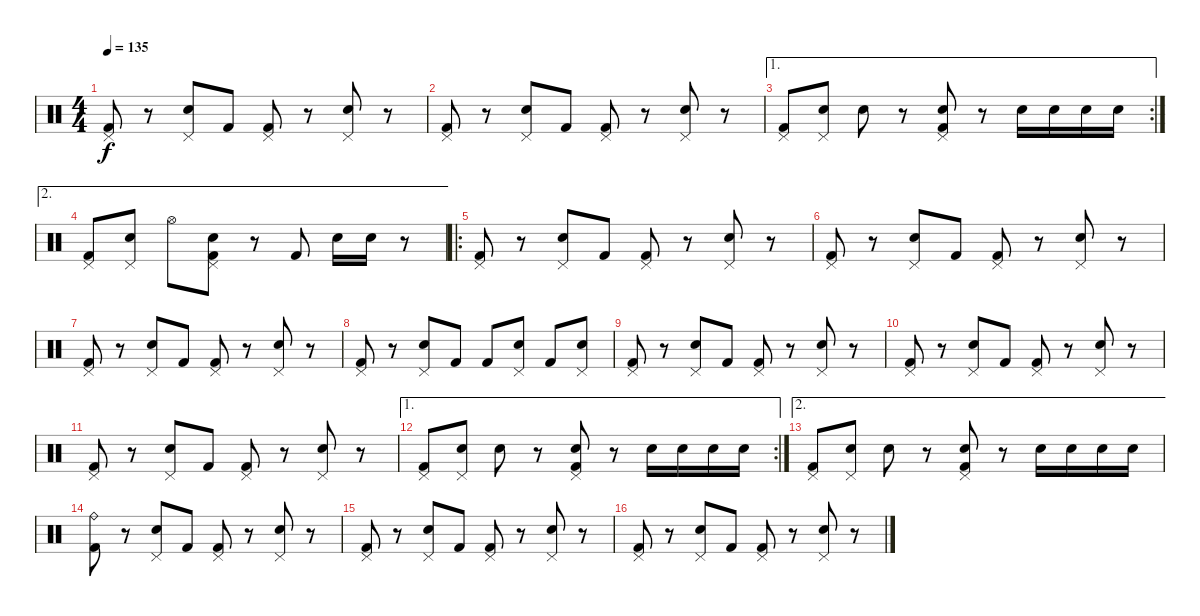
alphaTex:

\track "" {instrument percussion}
\staff {score}
\articulation defaults
\ts (4 4)
\tempo 135
\clef neutral
\ks c
("Kick (hit) 2" "Pedal Hi-Hat (hit)").8{dy f} r.8 ("Electric Snare (hit)" "Pedal Hi-Hat (hit)").8 "Kick (hit) 2".8 ("Kick (hit) 2" "Pedal Hi-Hat (hit)").8 r.8 ("Electric Snare (hit)" "Pedal Hi-Hat (hit)").8 r.8 |
("Kick (hit) 2" "Pedal Hi-Hat (hit)").8 r.8 ("Electric Snare (hit)" "Pedal Hi-Hat (hit)").8 "Kick (hit) 2".8 ("Kick (hit) 2" "Pedal Hi-Hat (hit)").8 r.8 ("Electric Snare (hit)" "Pedal Hi-Hat (hit)").8 r.8 |
\ae 1
\rc 2
("Kick (hit) 2" "Pedal Hi-Hat (hit)").8 ("Electric Snare (hit)" "Pedal Hi-Hat (hit)").8 "Electric Snare (hit)".8 r.8 ("Electric Snare (hit)" "Pedal Hi-Hat (hit)" "Kick (hit) 2").8 r.8 "Electric Snare (hit)".16 "Electric Snare (hit)".16 "Electric Snare (hit)".16 "Electric Snare (hit)".16 |
\ae 2
("Kick (hit) 2" "Pedal Hi-Hat (hit)").8 ("Electric Snare (hit)" "Pedal Hi-Hat (hit)").8 "Hi-Hat (open)".8 ("Electric Snare (hit)" "Pedal Hi-Hat (hit)" "Kick (hit) 2").8 r.8 "Kick (hit) 2".8 "Electric Snare (hit)".16 "Electric Snare (hit)".16 r.8 |
\ro
("Kick (hit) 2" "Pedal Hi-Hat (hit)").8 r.8 ("Electric Snare (hit)" "Pedal Hi-Hat (hit)").8 "Kick (hit) 2".8 ("Kick (hit) 2" "Pedal Hi-Hat (hit)").8 r.8 ("Electric Snare (hit)" "Pedal Hi-Hat (hit)").8 r.8 |
("Kick (hit) 2" "Pedal Hi-Hat (hit)").8 r.8 ("Electric Snare (hit)" "Pedal Hi-Hat (hit)").8 "Kick (hit) 2".8 ("Kick (hit) 2" "Pedal Hi-Hat (hit)").8 r.8 ("Electric Snare (hit)" "Pedal Hi-Hat (hit)").8 r.8 |
("Kick (hit) 2" "Pedal Hi-Hat (hit)").8 r.8 ("Electric Snare (hit)" "Pedal Hi-Hat (hit)").8 "Kick (hit) 2".8 ("Kick (hit) 2" "Pedal Hi-Hat (hit)").8 r.8 ("Electric Snare (hit)" "Pedal Hi-Hat (hit)").8 r.8 |
("Kick (hit) 2" "Pedal Hi-Hat (hit)").8 r.8 ("Electric Snare (hit)" "Pedal Hi-Hat (hit)").8 "Kick (hit) 2".8 "Kick (hit) 2".8 ("Electric Snare (hit)" "Pedal Hi-Hat (hit)").8 "Kick (hit) 2".8 ("Electric Snare (hit)" "Pedal Hi-Hat (hit)").8 |
("Kick (hit) 2" "Pedal Hi-Hat (hit)").8 r.8 ("Electric Snare (hit)" "Pedal Hi-Hat (hit)").8 "Kick (hit) 2".8 ("Kick (hit) 2" "Pedal Hi-Hat (hit)").8 r.8 ("Electric Snare (hit)" "Pedal Hi-Hat (hit)").8 r.8 |
("Kick (hit) 2" "Pedal Hi-Hat (hit)").8 r.8 ("Electric Snare (hit)" "Pedal Hi-Hat (hit)").8 "Kick (hit) 2".8 ("Kick (hit) 2" "Pedal Hi-Hat (hit)").8 r.8 ("Electric Snare (hit)" "Pedal Hi-Hat (hit)").8 r.8 |
("Kick (hit) 2" "Pedal Hi-Hat (hit)").8 r.8 ("Electric Snare (hit)" "Pedal Hi-Hat (hit)").8 "Kick (hit) 2".8 ("Kick (hit) 2" "Pedal Hi-Hat (hit)").8 r.8 ("Electric Snare (hit)" "Pedal Hi-Hat (hit)").8 r.8 |
\ae 1
\rc 2
("Kick (hit) 2" "Pedal Hi-Hat (hit)").8 ("Electric Snare (hit)" "Pedal Hi-Hat (hit)").8 "Electric Snare (hit)".8 r.8 ("Electric Snare (hit)" "Pedal Hi-Hat (hit)" "Kick (hit) 2").8 r.8 "Electric Snare (hit)".16 "Electric Snare (hit)".16 "Electric Snare (hit)".16 "Electric Snare (hit)".16 |
\ae 2
("Kick (hit) 2" "Pedal Hi-Hat (hit)").8 ("Electric Snare (hit)" "Pedal Hi-Hat (hit)").8 "Electric Snare (hit)".8 r.8 ("Electric Snare (hit)" "Pedal Hi-Hat (hit)" "Kick (hit) 2").8 r.8 "Electric Snare (hit)".16 "Electric Snare (hit)".16 "Electric Snare (hit)".16 "Electric Snare (hit)".16 |
("Kick (hit) 2" "Ride (bell)").8 r.8 ("Electric Snare (hit)" "Pedal Hi-Hat (hit)").8 "Kick (hit) 2".8 ("Kick (hit) 2" "Pedal Hi-Hat (hit)").8 r.8 ("Electric Snare (hit)" "Pedal Hi-Hat (hit)").8 r.8 |
("Kick (hit) 2" "Pedal Hi-Hat (hit)").8 r.8 ("Electric Snare (hit)" "Pedal Hi-Hat (hit)").8 "Kick (hit) 2".8 ("Kick (hit) 2" "Pedal Hi-Hat (hit)").8 r.8 ("Electric Snare (hit)" "Pedal Hi-Hat (hit)").8 r.8 |
("Kick (hit) 2" "Pedal Hi-Hat (hit)").8 r.8 ("Electric Snare (hit)" "Pedal Hi-Hat (hit)").8 "Kick (hit) 2".8 ("Kick (hit) 2" "Pedal Hi-Hat (hit)").8 r.8 ("Electric Snare (hit)" "Pedal Hi-Hat (hit)").8 r.8
